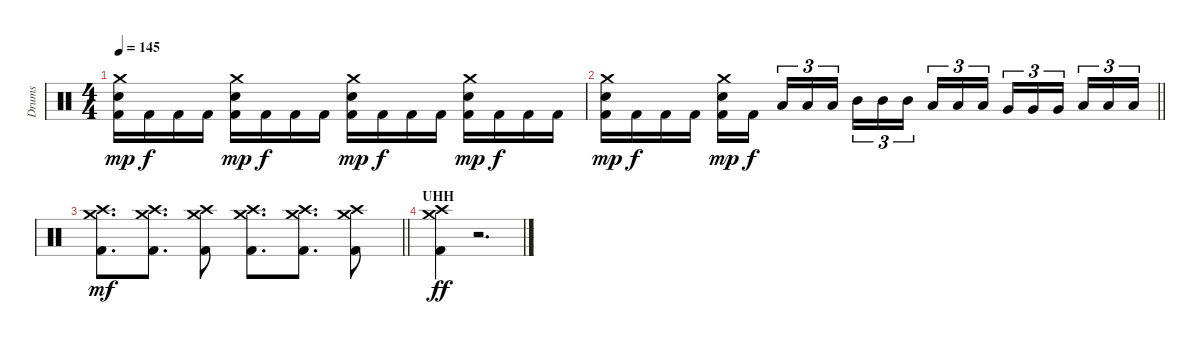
\track ("Drums" "Drums") {instrument percussion}
\staff {score}
\articulation defaults
\ts (4 4)
\tempo 145
\clef neutral
\ks c
("Crash medium (hit)" "Snare (hit) 2" "Kick (hit) 2").16{dy mp} "Kick (hit) 2".16{dy f} "Kick (hit) 2".16 "Kick (hit) 2".16 ("Crash medium (hit)" "Snare (hit) 2" "Kick (hit) 2").16{dy mp} "Kick (hit) 2".16{dy f} "Kick (hit) 2".16 "Kick (hit) 2".16 ("Crash medium (hit)" "Snare (hit) 2" "Kick (hit) 2").16{dy mp} "Kick (hit) 2".16{dy f} "Kick (hit) 2".16 "Kick (hit) 2".16 ("Crash medium (hit)" "Snare (hit) 2" "Kick (hit) 2").16{dy mp} "Kick (hit) 2".16{dy f} "Kick (hit) 2".16 "Kick (hit) 2".16 |
\barLineRight lightlight
("Crash medium (hit)" "Snare (hit) 2" "Kick (hit) 2").16{dy mp} "Kick (hit) 2".16{dy f} "Kick (hit) 2".16 "Kick (hit) 2".16 ("Crash medium (hit)" "Snare (hit) 2" "Kick (hit) 2").16{dy mp} "Kick (hit) 2".16{dy f beam splitsecondary} "Low Tom (hit)".16{tu (3 2)} "Low Tom (hit)".16{tu (3 2)} "Low Tom (hit)".16{tu (3 2)} "Mid Tom (hit)".16{tu (3 2)} "Mid Tom (hit)".16{tu (3 2)} "Mid Tom (hit)".16{tu (3 2) beam splitsecondary} "Low Tom (hit)".16{tu (3 2)} "Low Tom (hit)".16{tu (3 2)} "Low Tom (hit)".16{tu (3 2)} "Very Low Tom (hit)".16{tu (3 2)} "Very Low Tom (hit)".16{tu (3 2)} "Very Low Tom (hit)".16{tu (3 2) beam splitsecondary} "Low Floor Tom (hit)".16{tu (3 2)} "Low Floor Tom (hit)".16{tu (3 2)} "Low Floor Tom (hit)".16{tu (3 2)} |
\barLineRight lightlight
("Crash high (hit)" "Crash medium (hit)" "Kick (hit) 2").8{d dy mf} ("Crash high (hit)" "Crash medium (hit)" "Kick (hit) 2").8{d} ("Crash high (hit)" "Crash medium (hit)" "Kick (hit) 2").8 ("Crash high (hit)" "Crash medium (hit)" "Kick (hit) 2").8{d} ("Crash high (hit)" "Crash medium (hit)" "Kick (hit) 2").8{d} ("Crash high (hit)" "Crash medium (hit)" "Kick (hit) 2").8 |
\section ("" "UHH")
("Crash high (hit)" "Crash medium (hit)" "Kick (hit) 2").4{dy ff} r.2{d}
